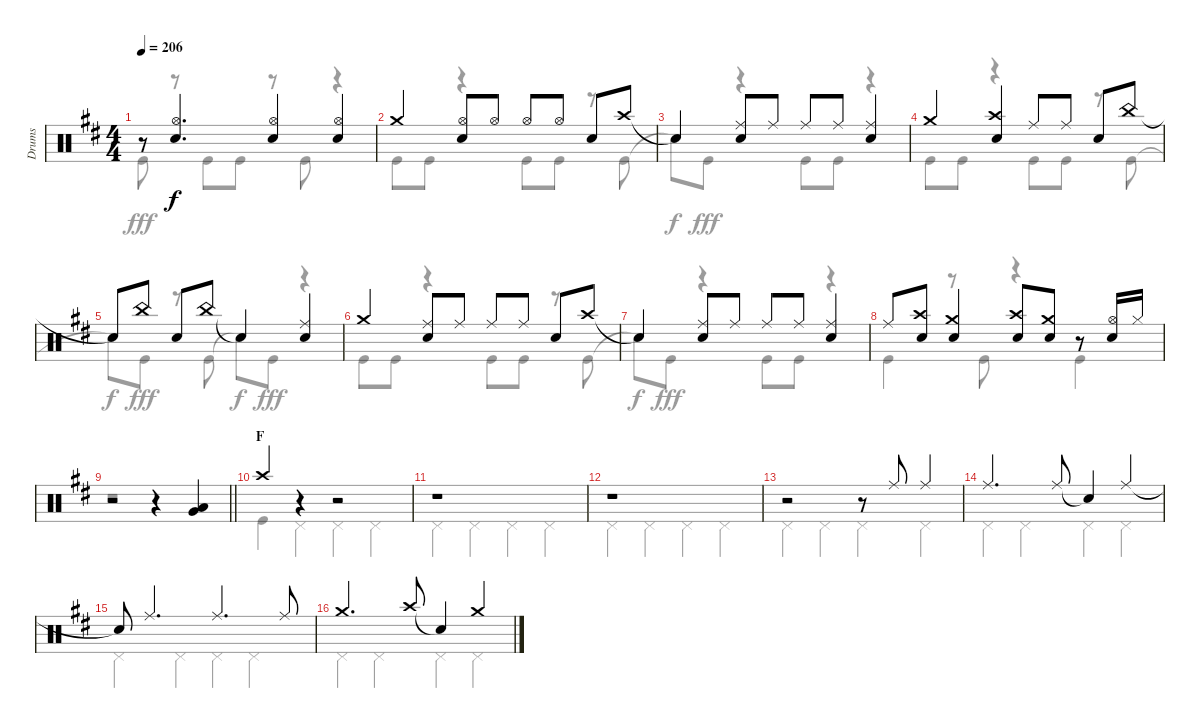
\track ("Drums" "Drums") {instrument percussion}
\staff {score}
\articulation defaults
\voice
\ts (4 4)
\tempo 206
\clef neutral
\ks d
r.8{dy f} ("Hi-Hat (open)" "Snare (hit) 2").4{d} ("Hi-Hat (open)" "Snare (hit) 2").4 ("Hi-Hat (open)" "Snare (hit) 2").4 |
"Crash medium (hit)".4 ("Hi-Hat (open)" "Snare (hit) 2").8 "Hi-Hat (open)".8 "Hi-Hat (open)".8 "Hi-Hat (open)".8 "Snare (hit) 2".8 "Crash high (hit)".8 |
"Snare (hit)"{t}.4 ("Ride (middle)" "Snare (hit) 2").8 "Ride (middle)".8 "Ride (middle)".8 "Ride (middle)".8 ("Ride (middle)" "Snare (hit) 2").4 |
"Crash medium (hit)".4 ("Crash high (hit)" "Snare (hit) 2").4 "Ride (middle)".8 "Ride (middle)".8 "Snare (hit) 2".8 "China (hit)".8 |
"Snare (hit)"{t}.8 "China (hit)".8 "Snare (hit) 2".8 "China (hit)".8 "Snare (hit)"{t}.4 ("Ride (middle)" "Snare (hit) 2").4 |
"Crash medium (hit)".4 ("Ride (middle)" "Snare (hit) 2").8 "Ride (middle)".8 "Ride (middle)".8 "Ride (middle)".8 "Snare (hit) 2".8 "Crash high (hit)".8 |
"Snare (hit)"{t}.4 ("Ride (middle)" "Snare (hit) 2").8 "Ride (middle)".8 "Ride (middle)".8 "Ride (middle)".8 ("Ride (middle)" "Snare (hit) 2").4 |
"Ride (middle)".8 ("Crash high (hit)" "Snare (hit) 2").8 ("Crash medium (hit)" "Snare (hit) 2").4 ("Crash high (hit)" "Snare (hit) 2").8 ("Crash medium (hit)" "Snare (hit) 2").8 r.8 ("Hi-Hat (open)" "Snare (hit) 2").16 "Hi-Hat (closed)".16 |
\barLineRight lightlight
r.2 r.4 ("Low Tom (hit)" "Very Low Tom (hit)").4 |
\section ("" "F")
"Crash high (hit)".4 r.4 r.2 |
r.1 |
r.1 |
r.2 r.8 "Ride (middle)".8 "Ride (middle)".4 |
"Ride (middle)".4{d} "Ride (middle)".8 "Snare (hit)"{t}.4 "Ride (middle)".4 |
"Snare (hit)"{t}.8 "Ride (middle)".4{d} "Ride (middle)".4{d} "Ride (middle)".8 |
"Crash medium (hit)".4{d} "Crash high (hit)".8 "Snare (hit)"{t}.4 "Crash medium (hit)".4
\voice
\clef neutral
\ottava regular
\simile none
\ks d "Kick (hit)".8{dy fff}
r.8 "Kick (hit)".8 "Kick (hit)".8 r.8 "Kick (hit)".8 r.4 |
"Kick (hit)".8 "Kick (hit)".8 r.4 "Kick (hit)".8 "Kick (hit)".8 r.8 "Kick (hit)".8 |
"Snare (hit)"{t}.8{dy f} "Kick (hit)".8{dy fff} r.4 "Kick (hit)".8 "Kick (hit)".8 r.4 |
"Kick (hit)".8 "Kick (hit)".8 r.4 "Kick (hit)".8 "Kick (hit)".8 r.8 "Kick (hit)".8 |
"Snare (hit)"{t}.8{dy f} "Kick (hit)".8{dy fff} r.8 "Kick (hit)".8 "Snare (hit)"{t}.8{dy f} "Kick (hit)".8{dy fff} r.4 |
"Kick (hit)".8 "Kick (hit)".8 r.4 "Kick (hit)".8 "Kick (hit)".8 r.8 "Kick (hit)".8 |
"Snare (hit)"{t}.8{dy f} "Kick (hit)".8{dy fff} r.4 "Kick (hit)".8 "Kick (hit)".8 r.4 |
"Kick (hit)".4 r.8 "Kick (hit)".8 r.4 "Kick (hit)".4 |
\barLineRight lightlight
r.1 |
"Kick (hit)".4 "Pedal Hi-Hat (hit)".4 "Pedal Hi-Hat (hit)".4 "Pedal Hi-Hat (hit)".4 |
"Pedal Hi-Hat (hit)".4 "Pedal Hi-Hat (hit)".4 "Pedal Hi-Hat (hit)".4 "Pedal Hi-Hat (hit)".4 |
"Pedal Hi-Hat (hit)".4 "Pedal Hi-Hat (hit)".4 "Pedal Hi-Hat (hit)".4 "Pedal Hi-Hat (hit)".4 |
"Pedal Hi-Hat (hit)".4 "Pedal Hi-Hat (hit)".4 "Pedal Hi-Hat (hit)".4 "Pedal Hi-Hat (hit)".4 |
"Pedal Hi-Hat (hit)".4 "Pedal Hi-Hat (hit)".4 "Pedal Hi-Hat (hit)".4 "Pedal Hi-Hat (hit)".4 |
"Pedal Hi-Hat (hit)".4 "Pedal Hi-Hat (hit)".4 "Pedal Hi-Hat (hit)".4 "Pedal Hi-Hat (hit)".4 |
"Pedal Hi-Hat (hit)".4 "Pedal Hi-Hat (hit)".4 "Pedal Hi-Hat (hit)".4 "Pedal Hi-Hat (hit)".4
